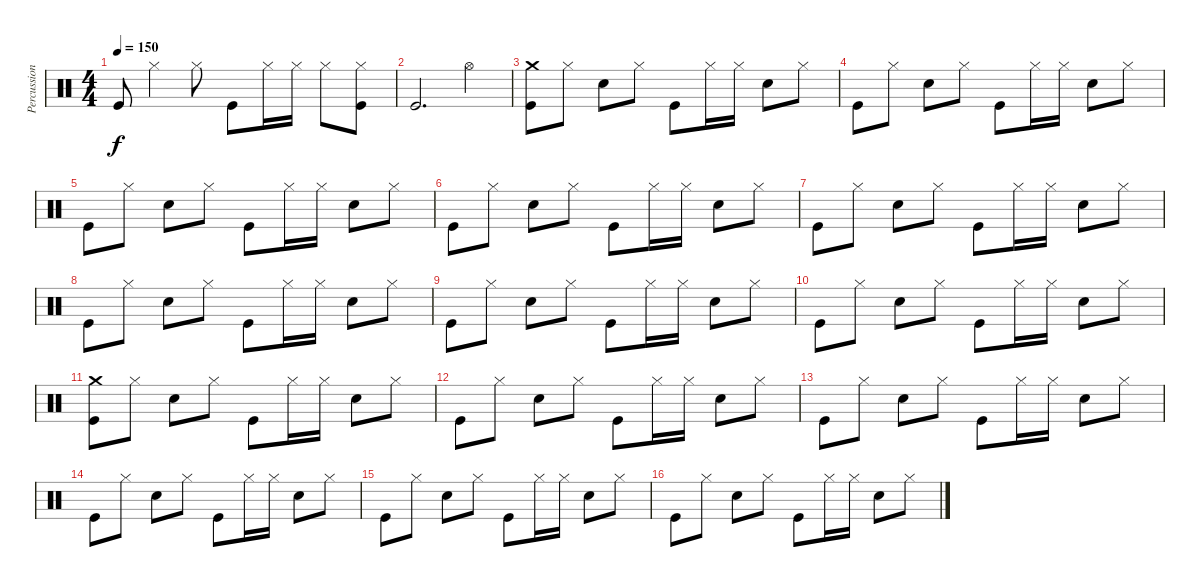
\track ("Percussion" "Percussion") {instrument percussion}
\staff {score}
\articulation defaults
\ts (4 4)
\tempo 150
\clef neutral
\ks c "Kick (hit)".8{dy f} "Hi-Hat (closed)".4 "Hi-Hat (closed)".8 "Kick (hit)".8 "Hi-Hat (closed)".16 "Hi-Hat (closed)".16 "Hi-Hat (closed)".8
("Hi-Hat (closed)" "Kick (hit)").8 |
"Kick (hit)".2{d} "Hi-Hat (open)".4 |
("Crash medium (hit)" "Kick (hit)").8 "Hi-Hat (closed)".8 "Snare (hit) 2".8 "Hi-Hat (closed)".8 "Kick (hit)".8 "Hi-Hat (closed)".16 "Hi-Hat (closed)".16 "Snare (hit) 2".8 "Hi-Hat (closed)".8 |
"Kick (hit)".8 "Hi-Hat (closed)".8 "Snare (hit) 2".8 "Hi-Hat (closed)".8 "Kick (hit)".8 "Hi-Hat (closed)".16 "Hi-Hat (closed)".16 "Snare (hit) 2".8 "Hi-Hat (closed)".8 |
"Kick (hit)".8 "Hi-Hat (closed)".8 "Snare (hit) 2".8 "Hi-Hat (closed)".8 "Kick (hit)".8 "Hi-Hat (closed)".16 "Hi-Hat (closed)".16 "Snare (hit) 2".8 "Hi-Hat (closed)".8 |
"Kick (hit)".8 "Hi-Hat (closed)".8 "Snare (hit) 2".8 "Hi-Hat (closed)".8 "Kick (hit)".8 "Hi-Hat (closed)".16 "Hi-Hat (closed)".16 "Snare (hit) 2".8 "Hi-Hat (closed)".8 |
"Kick (hit)".8 "Hi-Hat (closed)".8 "Snare (hit) 2".8 "Hi-Hat (closed)".8 "Kick (hit)".8 "Hi-Hat (closed)".16 "Hi-Hat (closed)".16 "Snare (hit) 2".8 "Hi-Hat (closed)".8 |
"Kick (hit)".8 "Hi-Hat (closed)".8 "Snare (hit) 2".8 "Hi-Hat (closed)".8 "Kick (hit)".8 "Hi-Hat (closed)".16 "Hi-Hat (closed)".16 "Snare (hit) 2".8 "Hi-Hat (closed)".8 |
"Kick (hit)".8 "Hi-Hat (closed)".8 "Snare (hit) 2".8 "Hi-Hat (closed)".8 "Kick (hit)".8 "Hi-Hat (closed)".16 "Hi-Hat (closed)".16 "Snare (hit) 2".8 "Hi-Hat (closed)".8 |
"Kick (hit)".8 "Hi-Hat (closed)".8 "Snare (hit) 2".8 "Hi-Hat (closed)".8 "Kick (hit)".8 "Hi-Hat (closed)".16 "Hi-Hat (closed)".16 "Snare (hit) 2".8 "Hi-Hat (closed)".8 |
("Crash medium (hit)" "Kick (hit)").8 "Hi-Hat (closed)".8 "Snare (hit) 2".8 "Hi-Hat (closed)".8 "Kick (hit)".8 "Hi-Hat (closed)".16 "Hi-Hat (closed)".16 "Snare (hit) 2".8 "Hi-Hat (closed)".8 |
"Kick (hit)".8 "Hi-Hat (closed)".8 "Snare (hit) 2".8 "Hi-Hat (closed)".8 "Kick (hit)".8 "Hi-Hat (closed)".16 "Hi-Hat (closed)".16 "Snare (hit) 2".8 "Hi-Hat (closed)".8 |
"Kick (hit)".8 "Hi-Hat (closed)".8 "Snare (hit) 2".8 "Hi-Hat (closed)".8 "Kick (hit)".8 "Hi-Hat (closed)".16 "Hi-Hat (closed)".16 "Snare (hit) 2".8 "Hi-Hat (closed)".8 |
"Kick (hit)".8 "Hi-Hat (closed)".8 "Snare (hit) 2".8 "Hi-Hat (closed)".8 "Kick (hit)".8 "Hi-Hat (closed)".16 "Hi-Hat (closed)".16 "Snare (hit) 2".8 "Hi-Hat (closed)".8 |
"Kick (hit)".8 "Hi-Hat (closed)".8 "Snare (hit) 2".8 "Hi-Hat (closed)".8 "Kick (hit)".8 "Hi-Hat (closed)".16 "Hi-Hat (closed)".16 "Snare (hit) 2".8 "Hi-Hat (closed)".8 |
"Kick (hit)".8 "Hi-Hat (closed)".8 "Snare (hit) 2".8 "Hi-Hat (closed)".8 "Kick (hit)".8 "Hi-Hat (closed)".16 "Hi-Hat (closed)".16 "Snare (hit) 2".8 "Hi-Hat (closed)".8
